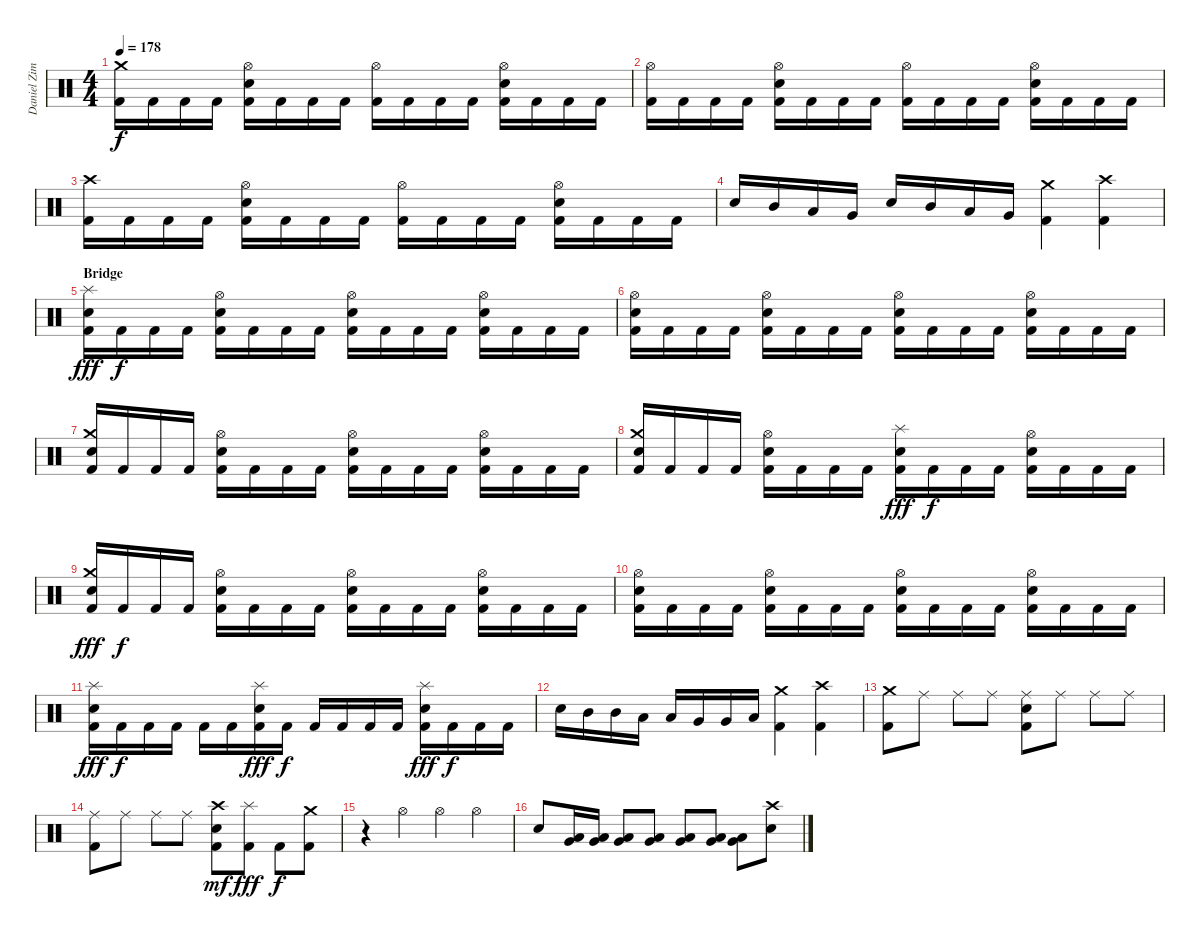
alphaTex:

\track ("Daniel Zimmermann" "Daniel Zim") {instrument percussion}
\staff {score}
\articulation defaults
\ts (4 4)
\tempo 178
\clef neutral
\ks c
("Kick (hit) 2" "Crash medium (hit)").16{dy f} "Kick (hit) 2".16 "Kick (hit) 2".16 "Kick (hit) 2".16 ("Kick (hit) 2" "Electric Snare (hit)" "Hi-Hat (open)").16 "Kick (hit) 2".16 "Kick (hit) 2".16 "Kick (hit) 2".16 ("Kick (hit) 2" "Hi-Hat (open)").16 "Kick (hit) 2".16 "Kick (hit) 2".16 "Kick (hit) 2".16 ("Kick (hit) 2" "Electric Snare (hit)" "Hi-Hat (open)").16 "Kick (hit) 2".16 "Kick (hit) 2".16 "Kick (hit) 2".16 |
("Kick (hit) 2" "Hi-Hat (open)").16 "Kick (hit) 2".16 "Kick (hit) 2".16 "Kick (hit) 2".16 ("Kick (hit) 2" "Electric Snare (hit)" "Hi-Hat (open)").16 "Kick (hit) 2".16 "Kick (hit) 2".16 "Kick (hit) 2".16 ("Kick (hit) 2" "Hi-Hat (open)").16 "Kick (hit) 2".16 "Kick (hit) 2".16 "Kick (hit) 2".16 ("Kick (hit) 2" "Electric Snare (hit)" "Hi-Hat (open)").16 "Kick (hit) 2".16 "Kick (hit) 2".16 "Kick (hit) 2".16 |
("Kick (hit) 2" "Crash high (hit)").16 "Kick (hit) 2".16 "Kick (hit) 2".16 "Kick (hit) 2".16 ("Kick (hit) 2" "Electric Snare (hit)" "Hi-Hat (open)").16 "Kick (hit) 2".16 "Kick (hit) 2".16 "Kick (hit) 2".16 ("Kick (hit) 2" "Hi-Hat (open)").16 "Kick (hit) 2".16 "Kick (hit) 2".16 "Kick (hit) 2".16 ("Kick (hit) 2" "Electric Snare (hit)" "Hi-Hat (open)").16 "Kick (hit) 2".16 "Kick (hit) 2".16 "Kick (hit) 2".16 |
"Electric Snare (hit)".16 "Mid Tom (hit)".16 "Low Tom (hit)".16 "Very Low Tom (hit)".16 "Electric Snare (hit)".16 "Mid Tom (hit)".16 "Low Tom (hit)".16 "Very Low Tom (hit)".16 ("Kick (hit) 2" "Crash medium (hit)").4 ("Kick (hit) 2" "Crash high (hit)").4 |
\section ("" "Bridge")
("Kick (hit) 2" "Electric Snare (hit)" "Splash (hit)").16{dy fff} "Kick (hit) 2".16{dy f} "Kick (hit) 2".16 "Kick (hit) 2".16 ("Kick (hit) 2" "Electric Snare (hit)" "Hi-Hat (open)").16 "Kick (hit) 2".16 "Kick (hit) 2".16 "Kick (hit) 2".16 ("Kick (hit) 2" "Electric Snare (hit)" "Hi-Hat (open)").16 "Kick (hit) 2".16 "Kick (hit) 2".16 "Kick (hit) 2".16 ("Kick (hit) 2" "Electric Snare (hit)" "Hi-Hat (open)").16 "Kick (hit) 2".16 "Kick (hit) 2".16 "Kick (hit) 2".16 |
("Kick (hit) 2" "Electric Snare (hit)" "Hi-Hat (open)").16 "Kick (hit) 2".16 "Kick (hit) 2".16 "Kick (hit) 2".16 ("Kick (hit) 2" "Electric Snare (hit)" "Hi-Hat (open)").16 "Kick (hit) 2".16 "Kick (hit) 2".16 "Kick (hit) 2".16 ("Kick (hit) 2" "Electric Snare (hit)" "Hi-Hat (open)").16 "Kick (hit) 2".16 "Kick (hit) 2".16 "Kick (hit) 2".16 ("Kick (hit) 2" "Electric Snare (hit)" "Hi-Hat (open)").16 "Kick (hit) 2".16 "Kick (hit) 2".16 "Kick (hit) 2".16 |
("Kick (hit) 2" "Electric Snare (hit)" "Crash medium (hit)").16 "Kick (hit) 2".16 "Kick (hit) 2".16 "Kick (hit) 2".16 ("Kick (hit) 2" "Electric Snare (hit)" "Hi-Hat (open)").16 "Kick (hit) 2".16 "Kick (hit) 2".16 "Kick (hit) 2".16 ("Kick (hit) 2" "Electric Snare (hit)" "Hi-Hat (open)").16 "Kick (hit) 2".16 "Kick (hit) 2".16 "Kick (hit) 2".16 ("Kick (hit) 2" "Electric Snare (hit)" "Hi-Hat (open)").16 "Kick (hit) 2".16 "Kick (hit) 2".16 "Kick (hit) 2".16 |
("Kick (hit) 2" "Electric Snare (hit)" "Crash medium (hit)").16 "Kick (hit) 2".16 "Kick (hit) 2".16 "Kick (hit) 2".16 ("Kick (hit) 2" "Electric Snare (hit)" "Hi-Hat (open)").16 "Kick (hit) 2".16 "Kick (hit) 2".16 "Kick (hit) 2".16 ("Kick (hit) 2" "Electric Snare (hit)" "Splash (hit)").16{dy fff} "Kick (hit) 2".16{dy f} "Kick (hit) 2".16 "Kick (hit) 2".16 ("Kick (hit) 2" "Electric Snare (hit)" "Hi-Hat (open)").16 "Kick (hit) 2".16 "Kick (hit) 2".16 "Kick (hit) 2".16 |
("Kick (hit) 2" "Electric Snare (hit)" "Crash medium (hit)").16{dy fff} "Kick (hit) 2".16{dy f} "Kick (hit) 2".16 "Kick (hit) 2".16 ("Kick (hit) 2" "Electric Snare (hit)" "Hi-Hat (open)").16 "Kick (hit) 2".16 "Kick (hit) 2".16 "Kick (hit) 2".16 ("Kick (hit) 2" "Electric Snare (hit)" "Hi-Hat (open)").16 "Kick (hit) 2".16 "Kick (hit) 2".16 "Kick (hit) 2".16 ("Kick (hit) 2" "Electric Snare (hit)" "Hi-Hat (open)").16 "Kick (hit) 2".16 "Kick (hit) 2".16 "Kick (hit) 2".16 |
("Kick (hit) 2" "Electric Snare (hit)" "Hi-Hat (open)").16 "Kick (hit) 2".16 "Kick (hit) 2".16 "Kick (hit) 2".16 ("Kick (hit) 2" "Electric Snare (hit)" "Hi-Hat (open)").16 "Kick (hit) 2".16 "Kick (hit) 2".16 "Kick (hit) 2".16 ("Kick (hit) 2" "Electric Snare (hit)" "Hi-Hat (open)").16 "Kick (hit) 2".16 "Kick (hit) 2".16 "Kick (hit) 2".16 ("Kick (hit) 2" "Electric Snare (hit)" "Hi-Hat (open)").16 "Kick (hit) 2".16 "Kick (hit) 2".16 "Kick (hit) 2".16 |
("Kick (hit) 2" "Electric Snare (hit)" "Splash (hit)").16{dy fff} "Kick (hit) 2".16{dy f} "Kick (hit) 2".16 "Kick (hit) 2".16 "Kick (hit) 2".16 "Kick (hit) 2".16 ("Kick (hit) 2" "Electric Snare (hit)" "Splash (hit)").16{dy fff} "Kick (hit) 2".16{dy f} "Kick (hit) 2".16 "Kick (hit) 2".16 "Kick (hit) 2".16 "Kick (hit) 2".16 ("Kick (hit) 2" "Electric Snare (hit)" "Splash (hit)").16{dy fff} "Kick (hit) 2".16{dy f} "Kick (hit) 2".16 "Kick (hit) 2".16 |
"Electric Snare (hit)".16 "Mid Tom (hit)".16 "Mid Tom (hit)".16 "Low Tom (hit)".16 "Low Tom (hit)".16 "Very Low Tom (hit)".16 "Very Low Tom (hit)".16 "Low Floor Tom (hit)".16 ("Kick (hit) 2" "Crash medium (hit)").4 ("Kick (hit) 2" "Crash high (hit)").4 |
("Kick (hit) 2" "Crash medium (hit)").8 "Ride (middle)".8 "Ride (middle)".8 "Ride (middle)".8 ("Kick (hit) 2" "Electric Snare (hit)" "Ride (middle)").8 "Ride (middle)".8 "Ride (middle)".8 "Ride (middle)".8 |
("Kick (hit) 2" "Ride (middle)").8 "Ride (middle)".8 "Ride (middle)".8 "Ride (middle)".8 ("Kick (hit) 2" "Electric Snare (hit)" "Crash high (hit)").8{dy mf} ("Kick (hit) 2" "Splash (hit)").8{dy fff} "Kick (hit) 2".8{dy f} ("Kick (hit) 2" "Crash medium (hit)").8 |
r.4 "Hi-Hat (open)".4 "Hi-Hat (open)".4 "Hi-Hat (open)".4 |
"Electric Snare (hit)".8 ("Low Tom (hit)" "Very Low Tom (hit)").16 ("Low Tom (hit)" "Very Low Tom (hit)").16 ("Low Tom (hit)" "Very Low Tom (hit)").8 ("Low Tom (hit)" "Very Low Tom (hit)").8 ("Low Tom (hit)" "Very Low Tom (hit)").8 ("Very Low Tom (hit)" "Low Floor Tom (hit)").8 ("Very Low Tom (hit)" "Low Floor Tom (hit)").8 ("Electric Snare (hit)" "Crash high (hit)").8
